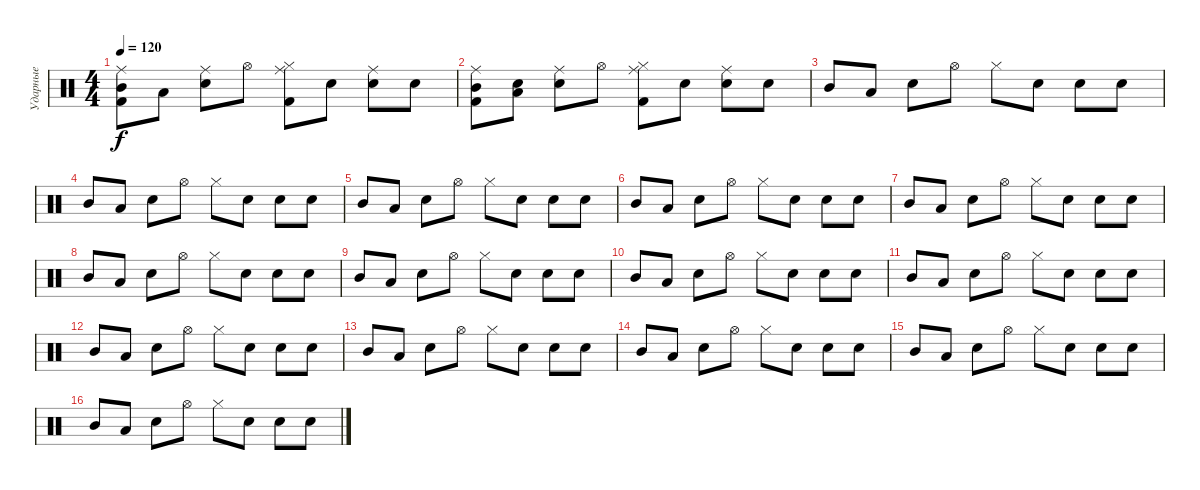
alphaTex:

\track ("Ударные" "Ударные") {instrument percussion}
\staff {score}
\articulation defaults
\ts (4 4)
\tempo 120
\clef neutral
\ks c
("Ride (middle)" "Mid Tom (hit)" "Kick (hit) 2").8{dy f} "Low Tom (hit)".8 ("Ride (middle)" "Electric Snare (hit)").8 "Hi-Hat (open)".8 ("Ride (middle)" "Hi-Hat (closed)" "Kick (hit) 2").8 "Snare (hit)".8 ("Ride (middle)" "Electric Snare (hit)").8 "Snare (hit)".8 |
("Ride (middle)" "Mid Tom (hit)" "Kick (hit) 2").8 ("Low Tom (hit)" "Snare (hit)").8 ("Ride (middle)" "Electric Snare (hit)").8 "Hi-Hat (open)".8 ("Ride (middle)" "Hi-Hat (closed)" "Kick (hit) 2").8 "Snare (hit)".8 ("Ride (middle)" "Electric Snare (hit)").8 "Snare (hit)".8 |
"Mid Tom (hit)".8 "Low Tom (hit)".8 "Electric Snare (hit)".8 "Hi-Hat (open)".8 "Hi-Hat (closed)".8 "Snare (hit)".8 "Electric Snare (hit)".8 "Snare (hit)".8 |
"Mid Tom (hit)".8 "Low Tom (hit)".8 "Electric Snare (hit)".8 "Hi-Hat (open)".8 "Hi-Hat (closed)".8 "Snare (hit)".8 "Electric Snare (hit)".8 "Snare (hit)".8 |
"Mid Tom (hit)".8 "Low Tom (hit)".8 "Electric Snare (hit)".8 "Hi-Hat (open)".8 "Hi-Hat (closed)".8 "Snare (hit)".8 "Electric Snare (hit)".8 "Snare (hit)".8 |
"Mid Tom (hit)".8 "Low Tom (hit)".8 "Electric Snare (hit)".8 "Hi-Hat (open)".8 "Hi-Hat (closed)".8 "Snare (hit)".8 "Electric Snare (hit)".8 "Snare (hit)".8 |
"Mid Tom (hit)".8 "Low Tom (hit)".8 "Electric Snare (hit)".8 "Hi-Hat (open)".8 "Hi-Hat (closed)".8 "Snare (hit)".8 "Electric Snare (hit)".8 "Snare (hit)".8 |
"Mid Tom (hit)".8 "Low Tom (hit)".8 "Electric Snare (hit)".8 "Hi-Hat (open)".8 "Hi-Hat (closed)".8 "Snare (hit)".8 "Electric Snare (hit)".8 "Snare (hit)".8 |
"Mid Tom (hit)".8 "Low Tom (hit)".8 "Electric Snare (hit)".8 "Hi-Hat (open)".8 "Hi-Hat (closed)".8 "Snare (hit)".8 "Electric Snare (hit)".8 "Snare (hit)".8 |
"Mid Tom (hit)".8 "Low Tom (hit)".8 "Electric Snare (hit)".8 "Hi-Hat (open)".8 "Hi-Hat (closed)".8 "Snare (hit)".8 "Electric Snare (hit)".8 "Snare (hit)".8 |
"Mid Tom (hit)".8 "Low Tom (hit)".8 "Electric Snare (hit)".8 "Hi-Hat (open)".8 "Hi-Hat (closed)".8 "Snare (hit)".8 "Electric Snare (hit)".8 "Snare (hit)".8 |
"Mid Tom (hit)".8 "Low Tom (hit)".8 "Electric Snare (hit)".8 "Hi-Hat (open)".8 "Hi-Hat (closed)".8 "Snare (hit)".8 "Electric Snare (hit)".8 "Snare (hit)".8 |
"Mid Tom (hit)".8 "Low Tom (hit)".8 "Electric Snare (hit)".8 "Hi-Hat (open)".8 "Hi-Hat (closed)".8 "Snare (hit)".8 "Electric Snare (hit)".8 "Snare (hit)".8 |
"Mid Tom (hit)".8 "Low Tom (hit)".8 "Electric Snare (hit)".8 "Hi-Hat (open)".8 "Hi-Hat (closed)".8 "Snare (hit)".8 "Electric Snare (hit)".8 "Snare (hit)".8 |
"Mid Tom (hit)".8 "Low Tom (hit)".8 "Electric Snare (hit)".8 "Hi-Hat (open)".8 "Hi-Hat (closed)".8 "Snare (hit)".8 "Electric Snare (hit)".8 "Snare (hit)".8 |
"Mid Tom (hit)".8 "Low Tom (hit)".8 "Electric Snare (hit)".8 "Hi-Hat (open)".8 "Hi-Hat (closed)".8 "Snare (hit)".8 "Electric Snare (hit)".8 "Snare (hit)".8
